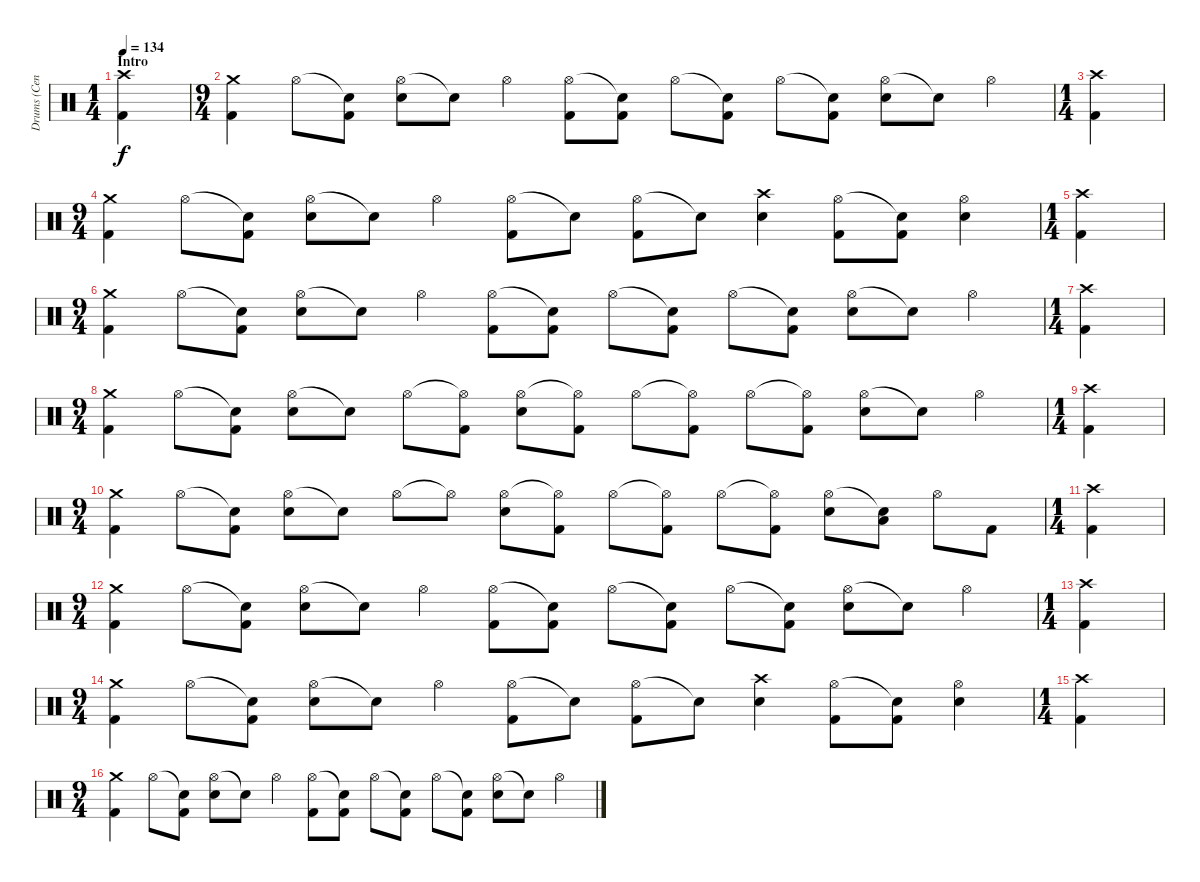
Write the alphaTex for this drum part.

\track ("Drums (Cenk)" "Drums (Cen") {instrument percussion}
\staff {score}
\articulation defaults
\ts (1 4)
\section ("" "Intro")
\tempo 134
\clef neutral
\ks c
("Crash high (hit)" "Kick (hit) 2").4{dy f} |
\ts (9 4)
("Crash medium (hit)" "Kick (hit) 2").4 "Hi-Hat (open)".8 ("Snare (hit)"{t} "Kick (hit) 2").8 ("Hi-Hat (open)" "Snare (hit) 2").8 "Snare (hit)"{t}.8 "Hi-Hat (open)".4 ("Hi-Hat (open)" "Kick (hit) 2").8 ("Snare (hit)"{t} "Kick (hit) 2").8 "Hi-Hat (open)".8 ("Snare (hit)"{t} "Kick (hit) 2").8 "Hi-Hat (open)".8 ("Snare (hit)"{t} "Kick (hit) 2").8 ("Hi-Hat (open)" "Snare (hit) 2").8 "Snare (hit)"{t}.8 "Hi-Hat (open)".4 |
\ts (1 4)
("Crash high (hit)" "Kick (hit) 2").4 |
\ts (9 4)
("Crash medium (hit)" "Kick (hit) 2").4 "Hi-Hat (open)".8 ("Snare (hit)"{t} "Kick (hit) 2").8 ("Hi-Hat (open)" "Snare (hit) 2").8 "Snare (hit)"{t}.8 "Hi-Hat (open)".4 ("Hi-Hat (open)" "Kick (hit) 2").8 "Snare (hit)"{t}.8 ("Hi-Hat (open)" "Kick (hit) 2").8 "Snare (hit)"{t}.8 ("Crash high (hit)" "Snare (hit) 2").4 ("Hi-Hat (open)" "Kick (hit) 2").8 ("Snare (hit)"{t} "Kick (hit) 2").8 ("Hi-Hat (open)" "Snare (hit) 2").4 |
\ts (1 4)
("Crash high (hit)" "Kick (hit) 2").4 |
\ts (9 4)
("Crash medium (hit)" "Kick (hit) 2").4 "Hi-Hat (open)".8 ("Snare (hit)"{t} "Kick (hit) 2").8 ("Hi-Hat (open)" "Snare (hit) 2").8 "Snare (hit)"{t}.8 "Hi-Hat (open)".4 ("Hi-Hat (open)" "Kick (hit) 2").8 ("Snare (hit)"{t} "Kick (hit) 2").8 "Hi-Hat (open)".8 ("Snare (hit)"{t} "Kick (hit) 2").8 "Hi-Hat (open)".8 ("Snare (hit)"{t} "Kick (hit) 2").8 ("Hi-Hat (open)" "Snare (hit) 2").8 "Snare (hit)"{t}.8 "Hi-Hat (open)".4 |
\ts (1 4)
("Crash high (hit)" "Kick (hit) 2").4 |
\ts (9 4)
("Crash medium (hit)" "Kick (hit) 2").4 "Hi-Hat (open)".8 ("Snare (hit)"{t} "Kick (hit) 2").8 ("Hi-Hat (open)" "Snare (hit) 2").8 "Snare (hit)"{t}.8 "Hi-Hat (open)".8 ("Hi-Hat (open)"{t} "Kick (hit) 2").8 ("Hi-Hat (open)" "Snare (hit) 2").8 ("Hi-Hat (open)"{t} "Kick (hit) 2").8 "Hi-Hat (open)".8 ("Hi-Hat (open)"{t} "Kick (hit) 2").8 "Hi-Hat (open)".8 ("Hi-Hat (open)"{t} "Kick (hit) 2").8 ("Hi-Hat (open)" "Snare (hit) 2").8 "Snare (hit)"{t}.8 "Hi-Hat (open)".4 |
\ts (1 4)
("Crash high (hit)" "Kick (hit) 2").4 |
\ts (9 4)
("Crash medium (hit)" "Kick (hit) 2").4 "Hi-Hat (open)".8 ("Snare (hit)"{t} "Kick (hit) 2").8 ("Hi-Hat (open)" "Snare (hit) 2").8 "Snare (hit)"{t}.8 "Hi-Hat (open)".8 "Hi-Hat (open)"{t}.8 ("Hi-Hat (open)" "Snare (hit) 2").8 ("Hi-Hat (open)"{t} "Kick (hit) 2").8 "Hi-Hat (open)".8 ("Hi-Hat (open)"{t} "Kick (hit) 2").8 "Hi-Hat (open)".8 ("Hi-Hat (open)"{t} "Kick (hit) 2").8 ("Hi-Hat (open)" "Snare (hit) 2").8 ("Snare (hit)"{t} "Low Tom (hit)").8 "Hi-Hat (open)".8 "Kick (hit) 2".8 |
\ts (1 4)
("Crash high (hit)" "Kick (hit) 2").4 |
\ts (9 4)
("Crash medium (hit)" "Kick (hit) 2").4 "Hi-Hat (open)".8 ("Snare (hit)"{t} "Kick (hit) 2").8 ("Hi-Hat (open)" "Snare (hit) 2").8 "Snare (hit)"{t}.8 "Hi-Hat (open)".4 ("Hi-Hat (open)" "Kick (hit) 2").8 ("Snare (hit)"{t} "Kick (hit) 2").8 "Hi-Hat (open)".8 ("Snare (hit)"{t} "Kick (hit) 2").8 "Hi-Hat (open)".8 ("Snare (hit)"{t} "Kick (hit) 2").8 ("Hi-Hat (open)" "Snare (hit) 2").8 "Snare (hit)"{t}.8 "Hi-Hat (open)".4 |
\ts (1 4)
("Crash high (hit)" "Kick (hit) 2").4 |
\ts (9 4)
("Crash medium (hit)" "Kick (hit) 2").4 "Hi-Hat (open)".8 ("Snare (hit)"{t} "Kick (hit) 2").8 ("Hi-Hat (open)" "Snare (hit) 2").8 "Snare (hit)"{t}.8 "Hi-Hat (open)".4 ("Hi-Hat (open)" "Kick (hit) 2").8 "Snare (hit)"{t}.8 ("Hi-Hat (open)" "Kick (hit) 2").8 "Snare (hit)"{t}.8 ("Crash high (hit)" "Snare (hit) 2").4 ("Hi-Hat (open)" "Kick (hit) 2").8 ("Snare (hit)"{t} "Kick (hit) 2").8 ("Hi-Hat (open)" "Snare (hit) 2").4 |
\ts (1 4)
("Crash high (hit)" "Kick (hit) 2").4 |
\ts (9 4)
("Crash medium (hit)" "Kick (hit) 2").4 "Hi-Hat (open)".8 ("Snare (hit)"{t} "Kick (hit) 2").8 ("Hi-Hat (open)" "Snare (hit) 2").8 "Snare (hit)"{t}.8 "Hi-Hat (open)".4 ("Hi-Hat (open)" "Kick (hit) 2").8 ("Snare (hit)"{t} "Kick (hit) 2").8 "Hi-Hat (open)".8 ("Snare (hit)"{t} "Kick (hit) 2").8 "Hi-Hat (open)".8 ("Snare (hit)"{t} "Kick (hit) 2").8 ("Hi-Hat (open)" "Snare (hit) 2").8 "Snare (hit)"{t}.8 "Hi-Hat (open)".4
